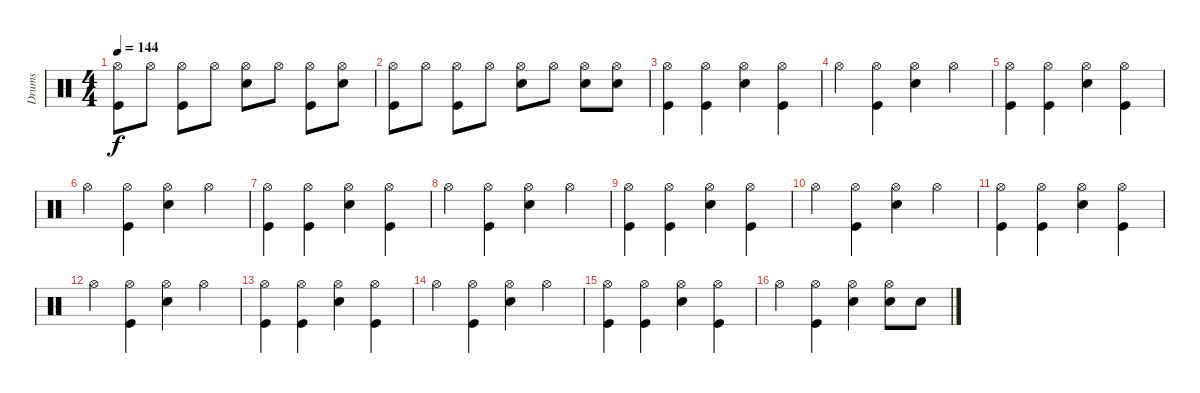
\track ("Drums               " "Drums     ") {instrument percussion}
\staff {score}
\articulation defaults
\ts (4 4)
\tempo 144
\clef neutral
\ks c
("Kick (hit)" "Hi-Hat (open)").8{dy f} "Hi-Hat (open)".8 ("Kick (hit)" "Hi-Hat (open)").8 "Hi-Hat (open)".8 ("Snare (hit) 2" "Hi-Hat (open)").8 "Hi-Hat (open)".8 ("Hi-Hat (open)" "Kick (hit)").8 ("Snare (hit) 2" "Hi-Hat (open)").8 |
("Kick (hit)" "Hi-Hat (open)").8 "Hi-Hat (open)".8 ("Kick (hit)" "Hi-Hat (open)").8 "Hi-Hat (open)".8 ("Snare (hit) 2" "Hi-Hat (open)").8 "Hi-Hat (open)".8 ("Hi-Hat (open)" "Snare (hit) 2").8 ("Snare (hit) 2" "Hi-Hat (open)").8 |
("Kick (hit)" "Hi-Hat (open)").4 ("Kick (hit)" "Hi-Hat (open)").4 ("Snare (hit) 2" "Hi-Hat (open)").4 ("Kick (hit)" "Hi-Hat (open)").4 |
"Hi-Hat (open)".4 ("Kick (hit)" "Hi-Hat (open)").4 ("Snare (hit) 2" "Hi-Hat (open)").4 "Hi-Hat (open)".4 |
("Kick (hit)" "Hi-Hat (open)").4 ("Kick (hit)" "Hi-Hat (open)").4 ("Snare (hit) 2" "Hi-Hat (open)").4 ("Kick (hit)" "Hi-Hat (open)").4 |
"Hi-Hat (open)".4 ("Kick (hit)" "Hi-Hat (open)").4 ("Snare (hit) 2" "Hi-Hat (open)").4 "Hi-Hat (open)".4 |
("Kick (hit)" "Hi-Hat (open)").4 ("Kick (hit)" "Hi-Hat (open)").4 ("Snare (hit) 2" "Hi-Hat (open)").4 ("Kick (hit)" "Hi-Hat (open)").4 |
"Hi-Hat (open)".4 ("Kick (hit)" "Hi-Hat (open)").4 ("Snare (hit) 2" "Hi-Hat (open)").4 "Hi-Hat (open)".4 |
("Kick (hit)" "Hi-Hat (open)").4 ("Kick (hit)" "Hi-Hat (open)").4 ("Snare (hit) 2" "Hi-Hat (open)").4 ("Kick (hit)" "Hi-Hat (open)").4 |
"Hi-Hat (open)".4 ("Kick (hit)" "Hi-Hat (open)").4 ("Snare (hit) 2" "Hi-Hat (open)").4 "Hi-Hat (open)".4 |
("Kick (hit)" "Hi-Hat (open)").4 ("Kick (hit)" "Hi-Hat (open)").4 ("Snare (hit) 2" "Hi-Hat (open)").4 ("Kick (hit)" "Hi-Hat (open)").4 |
"Hi-Hat (open)".4 ("Kick (hit)" "Hi-Hat (open)").4 ("Snare (hit) 2" "Hi-Hat (open)").4 "Hi-Hat (open)".4 |
("Kick (hit)" "Hi-Hat (open)").4 ("Kick (hit)" "Hi-Hat (open)").4 ("Snare (hit) 2" "Hi-Hat (open)").4 ("Kick (hit)" "Hi-Hat (open)").4 |
"Hi-Hat (open)".4 ("Kick (hit)" "Hi-Hat (open)").4 ("Snare (hit) 2" "Hi-Hat (open)").4 "Hi-Hat (open)".4 |
("Kick (hit)" "Hi-Hat (open)").4 ("Kick (hit)" "Hi-Hat (open)").4 ("Snare (hit) 2" "Hi-Hat (open)").4 ("Kick (hit)" "Hi-Hat (open)").4 |
"Hi-Hat (open)".4 ("Kick (hit)" "Hi-Hat (open)").4 ("Hi-Hat (open)" "Snare (hit) 2").4 ("Hi-Hat (open)" "Snare (hit) 2").8 "Snare (hit) 2".8
